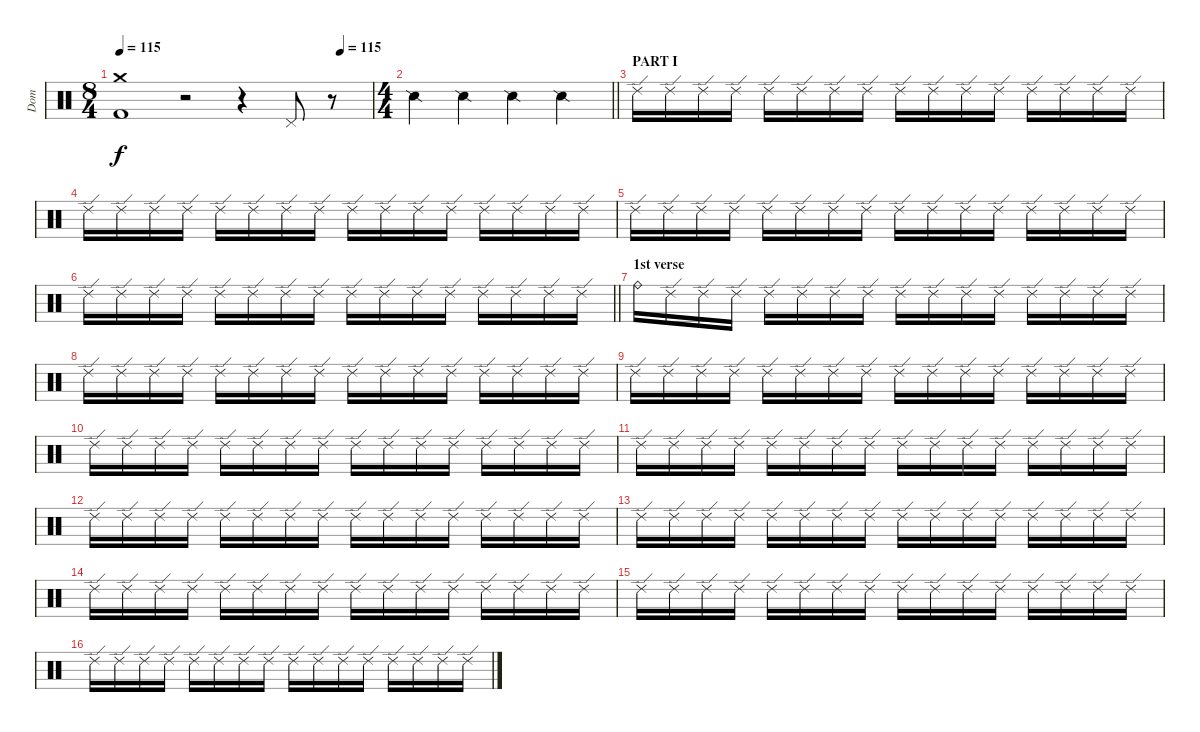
\track ("Dom" "Dom") {instrument percussion}
\staff {score}
\articulation defaults
\ts (8 4)
\tempo 115
\tempo (115 0.875)
\clef neutral
\ks c
("Crash medium (hit)" "Kick (hit) 2").1{dy f} r.2 r.4 "Pedal Hi-Hat (hit)".8 r.8 |
\ts (4 4)
\barLineRight lightlight "Snare (side stick) 2".4 "Snare (side stick) 2".4 "Snare (side stick) 2".4 "Snare (side stick) 2".4
|
\section ("" "PART I")
"Ride (edge) 2".16 "Ride (edge) 2".16 "Ride (edge) 2".16 "Ride (edge) 2".16 "Ride (edge) 2".16 "Ride (edge) 2".16 "Ride (edge) 2".16 "Ride (edge) 2".16 "Ride (edge) 2".16 "Ride (edge) 2".16 "Ride (edge) 2".16 "Ride (edge) 2".16 "Ride (edge) 2".16 "Ride (edge) 2".16 "Ride (edge) 2".16 "Ride (edge) 2".16 |
"Ride (edge) 2".16 "Ride (edge) 2".16 "Ride (edge) 2".16 "Ride (edge) 2".16 "Ride (edge) 2".16 "Ride (edge) 2".16 "Ride (edge) 2".16 "Ride (edge) 2".16 "Ride (edge) 2".16 "Ride (edge) 2".16 "Ride (edge) 2".16 "Ride (edge) 2".16 "Ride (edge) 2".16 "Ride (edge) 2".16 "Ride (edge) 2".16 "Ride (edge) 2".16 |
"Ride (edge) 2".16 "Ride (edge) 2".16 "Ride (edge) 2".16 "Ride (edge) 2".16 "Ride (edge) 2".16 "Ride (edge) 2".16 "Ride (edge) 2".16 "Ride (edge) 2".16 "Ride (edge) 2".16 "Ride (edge) 2".16 "Ride (edge) 2".16 "Ride (edge) 2".16 "Ride (edge) 2".16 "Ride (edge) 2".16 "Ride (edge) 2".16 "Ride (edge) 2".16 |
\barLineRight lightlight "Ride (edge) 2".16 "Ride (edge) 2".16 "Ride (edge) 2".16 "Ride (edge) 2".16 "Ride (edge) 2".16 "Ride (edge) 2".16 "Ride (edge) 2".16 "Ride (edge) 2".16 "Ride (edge) 2".16 "Ride (edge) 2".16 "Ride (edge) 2".16 "Ride (edge) 2".16 "Ride (edge) 2".16 "Ride (edge) 2".16 "Ride (edge) 2".16 "Ride (edge) 2".16
|
\section ("" "1st verse")
"Ride (bell)".16 "Ride (edge) 2".16 "Ride (edge) 2".16 "Ride (edge) 2".16 "Ride (edge) 2".16 "Ride (edge) 2".16 "Ride (edge) 2".16 "Ride (edge) 2".16 "Ride (edge) 2".16 "Ride (edge) 2".16 "Ride (edge) 2".16 "Ride (edge) 2".16 "Ride (edge) 2".16 "Ride (edge) 2".16 "Ride (edge) 2".16 "Ride (edge) 2".16 |
"Ride (edge) 2".16 "Ride (edge) 2".16 "Ride (edge) 2".16 "Ride (edge) 2".16 "Ride (edge) 2".16 "Ride (edge) 2".16 "Ride (edge) 2".16 "Ride (edge) 2".16 "Ride (edge) 2".16 "Ride (edge) 2".16 "Ride (edge) 2".16 "Ride (edge) 2".16 "Ride (edge) 2".16 "Ride (edge) 2".16 "Ride (edge) 2".16 "Ride (edge) 2".16 |
"Ride (edge) 2".16 "Ride (edge) 2".16 "Ride (edge) 2".16 "Ride (edge) 2".16 "Ride (edge) 2".16 "Ride (edge) 2".16 "Ride (edge) 2".16 "Ride (edge) 2".16 "Ride (edge) 2".16 "Ride (edge) 2".16 "Ride (edge) 2".16 "Ride (edge) 2".16 "Ride (edge) 2".16 "Ride (edge) 2".16 "Ride (edge) 2".16 "Ride (edge) 2".16 |
"Ride (edge) 2".16 "Ride (edge) 2".16 "Ride (edge) 2".16 "Ride (edge) 2".16 "Ride (edge) 2".16 "Ride (edge) 2".16 "Ride (edge) 2".16 "Ride (edge) 2".16 "Ride (edge) 2".16 "Ride (edge) 2".16 "Ride (edge) 2".16 "Ride (edge) 2".16 "Ride (edge) 2".16 "Ride (edge) 2".16 "Ride (edge) 2".16 "Ride (edge) 2".16 |
"Ride (edge) 2".16 "Ride (edge) 2".16 "Ride (edge) 2".16 "Ride (edge) 2".16 "Ride (edge) 2".16 "Ride (edge) 2".16 "Ride (edge) 2".16 "Ride (edge) 2".16 "Ride (edge) 2".16 "Ride (edge) 2".16 "Ride (edge) 2".16 "Ride (edge) 2".16 "Ride (edge) 2".16 "Ride (edge) 2".16 "Ride (edge) 2".16 "Ride (edge) 2".16 |
"Ride (edge) 2".16 "Ride (edge) 2".16 "Ride (edge) 2".16 "Ride (edge) 2".16 "Ride (edge) 2".16 "Ride (edge) 2".16 "Ride (edge) 2".16 "Ride (edge) 2".16 "Ride (edge) 2".16 "Ride (edge) 2".16 "Ride (edge) 2".16 "Ride (edge) 2".16 "Ride (edge) 2".16 "Ride (edge) 2".16 "Ride (edge) 2".16 "Ride (edge) 2".16 |
"Ride (edge) 2".16 "Ride (edge) 2".16 "Ride (edge) 2".16 "Ride (edge) 2".16 "Ride (edge) 2".16 "Ride (edge) 2".16 "Ride (edge) 2".16 "Ride (edge) 2".16 "Ride (edge) 2".16 "Ride (edge) 2".16 "Ride (edge) 2".16 "Ride (edge) 2".16 "Ride (edge) 2".16 "Ride (edge) 2".16 "Ride (edge) 2".16 "Ride (edge) 2".16 |
"Ride (edge) 2".16 "Ride (edge) 2".16 "Ride (edge) 2".16 "Ride (edge) 2".16 "Ride (edge) 2".16 "Ride (edge) 2".16 "Ride (edge) 2".16 "Ride (edge) 2".16 "Ride (edge) 2".16 "Ride (edge) 2".16 "Ride (edge) 2".16 "Ride (edge) 2".16 "Ride (edge) 2".16 "Ride (edge) 2".16 "Ride (edge) 2".16 "Ride (edge) 2".16 |
"Ride (edge) 2".16 "Ride (edge) 2".16 "Ride (edge) 2".16 "Ride (edge) 2".16 "Ride (edge) 2".16 "Ride (edge) 2".16 "Ride (edge) 2".16 "Ride (edge) 2".16 "Ride (edge) 2".16 "Ride (edge) 2".16 "Ride (edge) 2".16 "Ride (edge) 2".16 "Ride (edge) 2".16 "Ride (edge) 2".16 "Ride (edge) 2".16 "Ride (edge) 2".16 |
"Ride (edge) 2".16 "Ride (edge) 2".16 "Ride (edge) 2".16 "Ride (edge) 2".16 "Ride (edge) 2".16 "Ride (edge) 2".16 "Ride (edge) 2".16 "Ride (edge) 2".16 "Ride (edge) 2".16 "Ride (edge) 2".16 "Ride (edge) 2".16 "Ride (edge) 2".16 "Ride (edge) 2".16 "Ride (edge) 2".16 "Ride (edge) 2".16 "Ride (edge) 2".16
